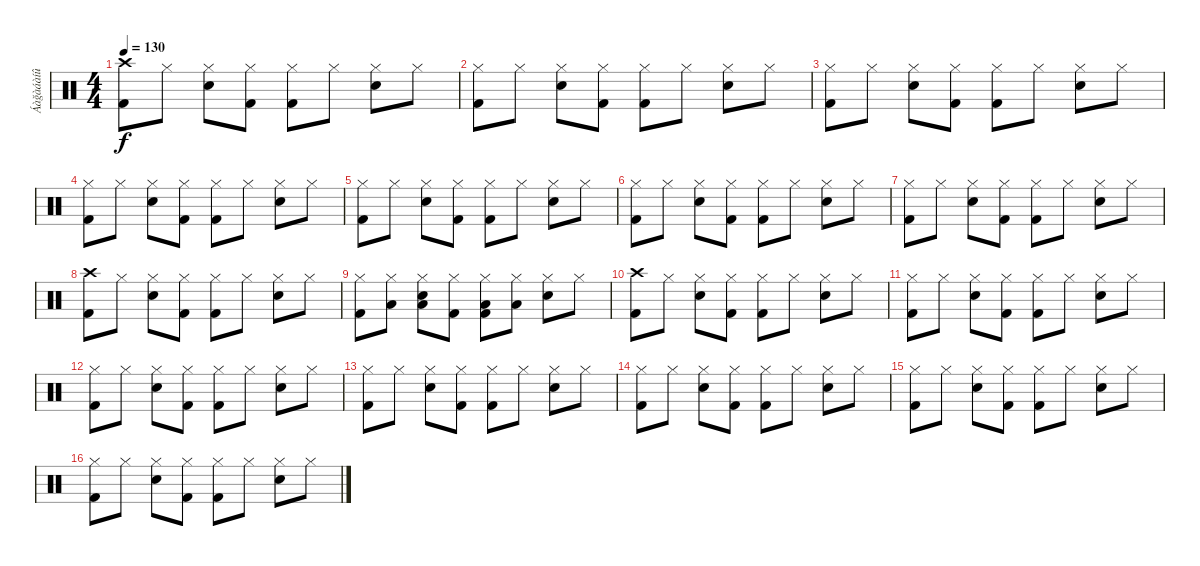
\track ("Áàğàáàíû" "Áàğàáàíû") {instrument percussion}
\staff {score}
\articulation defaults
\ts (4 4)
\tempo 130
\clef neutral
\ks c
("Crash high (hit)" "Kick (hit) 2").8{dy f} "Hi-Hat (closed)".8 ("Hi-Hat (closed)" "Snare (hit) 2").8 ("Hi-Hat (closed)" "Kick (hit) 2").8 ("Hi-Hat (closed)" "Kick (hit) 2").8 "Hi-Hat (closed)".8 ("Hi-Hat (closed)" "Snare (hit) 2").8 "Hi-Hat (closed)".8 |
("Hi-Hat (closed)" "Kick (hit) 2").8 "Hi-Hat (closed)".8 ("Hi-Hat (closed)" "Snare (hit) 2").8 ("Hi-Hat (closed)" "Kick (hit) 2").8 ("Hi-Hat (closed)" "Kick (hit) 2").8 "Hi-Hat (closed)".8 ("Hi-Hat (closed)" "Snare (hit) 2").8 "Hi-Hat (closed)".8 |
("Hi-Hat (closed)" "Kick (hit) 2").8 "Hi-Hat (closed)".8 ("Hi-Hat (closed)" "Snare (hit) 2").8 ("Hi-Hat (closed)" "Kick (hit) 2").8 ("Hi-Hat (closed)" "Kick (hit) 2").8 "Hi-Hat (closed)".8 ("Hi-Hat (closed)" "Snare (hit) 2").8 "Hi-Hat (closed)".8 |
("Hi-Hat (closed)" "Kick (hit) 2").8 "Hi-Hat (closed)".8 ("Hi-Hat (closed)" "Snare (hit) 2").8 ("Hi-Hat (closed)" "Kick (hit) 2").8 ("Hi-Hat (closed)" "Kick (hit) 2").8 "Hi-Hat (closed)".8 ("Hi-Hat (closed)" "Snare (hit) 2").8 "Hi-Hat (closed)".8 |
("Hi-Hat (closed)" "Kick (hit) 2").8 "Hi-Hat (closed)".8 ("Hi-Hat (closed)" "Snare (hit) 2").8 ("Hi-Hat (closed)" "Kick (hit) 2").8 ("Hi-Hat (closed)" "Kick (hit) 2").8 "Hi-Hat (closed)".8 ("Hi-Hat (closed)" "Snare (hit) 2").8 "Hi-Hat (closed)".8 |
("Hi-Hat (closed)" "Kick (hit) 2").8 "Hi-Hat (closed)".8 ("Hi-Hat (closed)" "Snare (hit) 2").8 ("Hi-Hat (closed)" "Kick (hit) 2").8 ("Hi-Hat (closed)" "Kick (hit) 2").8 "Hi-Hat (closed)".8 ("Hi-Hat (closed)" "Snare (hit) 2").8 "Hi-Hat (closed)".8 |
("Hi-Hat (closed)" "Kick (hit) 2").8 "Hi-Hat (closed)".8 ("Hi-Hat (closed)" "Snare (hit) 2").8 ("Hi-Hat (closed)" "Kick (hit) 2").8 ("Hi-Hat (closed)" "Kick (hit) 2").8 "Hi-Hat (closed)".8 ("Hi-Hat (closed)" "Snare (hit) 2").8 "Hi-Hat (closed)".8 |
("Crash high (hit)" "Kick (hit) 2").8 "Hi-Hat (closed)".8 ("Hi-Hat (closed)" "Snare (hit) 2").8 ("Hi-Hat (closed)" "Kick (hit) 2").8 ("Hi-Hat (closed)" "Kick (hit) 2").8 "Hi-Hat (closed)".8 ("Hi-Hat (closed)" "Snare (hit) 2").8 "Hi-Hat (closed)".8 |
("Hi-Hat (closed)" "Kick (hit) 2").8 ("Hi-Hat (closed)" "Low Tom (hit)").8 ("Hi-Hat (closed)" "Snare (hit) 2" "Low Tom (hit)").8 ("Hi-Hat (closed)" "Kick (hit) 2").8 ("Hi-Hat (closed)" "Kick (hit) 2" "Low Tom (hit)").8 ("Hi-Hat (closed)" "Low Tom (hit)").8 ("Hi-Hat (closed)" "Snare (hit) 2").8 "Hi-Hat (closed)".8 |
("Crash high (hit)" "Kick (hit) 2").8 "Hi-Hat (closed)".8 ("Hi-Hat (closed)" "Snare (hit) 2").8 ("Hi-Hat (closed)" "Kick (hit) 2").8 ("Hi-Hat (closed)" "Kick (hit) 2").8 "Hi-Hat (closed)".8 ("Hi-Hat (closed)" "Snare (hit) 2").8 "Hi-Hat (closed)".8 |
("Hi-Hat (closed)" "Kick (hit) 2").8 "Hi-Hat (closed)".8 ("Hi-Hat (closed)" "Snare (hit) 2").8 ("Hi-Hat (closed)" "Kick (hit) 2").8 ("Hi-Hat (closed)" "Kick (hit) 2").8 "Hi-Hat (closed)".8 ("Hi-Hat (closed)" "Snare (hit) 2").8 "Hi-Hat (closed)".8 |
("Hi-Hat (closed)" "Kick (hit) 2").8 "Hi-Hat (closed)".8 ("Hi-Hat (closed)" "Snare (hit) 2").8 ("Hi-Hat (closed)" "Kick (hit) 2").8 ("Hi-Hat (closed)" "Kick (hit) 2").8 "Hi-Hat (closed)".8 ("Hi-Hat (closed)" "Snare (hit) 2").8 "Hi-Hat (closed)".8 |
("Hi-Hat (closed)" "Kick (hit) 2").8 "Hi-Hat (closed)".8 ("Hi-Hat (closed)" "Snare (hit) 2").8 ("Hi-Hat (closed)" "Kick (hit) 2").8 ("Hi-Hat (closed)" "Kick (hit) 2").8 "Hi-Hat (closed)".8 ("Hi-Hat (closed)" "Snare (hit) 2").8 "Hi-Hat (closed)".8 |
("Hi-Hat (closed)" "Kick (hit) 2").8 "Hi-Hat (closed)".8 ("Hi-Hat (closed)" "Snare (hit) 2").8 ("Hi-Hat (closed)" "Kick (hit) 2").8 ("Hi-Hat (closed)" "Kick (hit) 2").8 "Hi-Hat (closed)".8 ("Hi-Hat (closed)" "Snare (hit) 2").8 "Hi-Hat (closed)".8 |
("Hi-Hat (closed)" "Kick (hit) 2").8 "Hi-Hat (closed)".8 ("Hi-Hat (closed)" "Snare (hit) 2").8 ("Hi-Hat (closed)" "Kick (hit) 2").8 ("Hi-Hat (closed)" "Kick (hit) 2").8 "Hi-Hat (closed)".8 ("Hi-Hat (closed)" "Snare (hit) 2").8 "Hi-Hat (closed)".8 |
("Hi-Hat (closed)" "Kick (hit) 2").8 "Hi-Hat (closed)".8 ("Hi-Hat (closed)" "Snare (hit) 2").8 ("Hi-Hat (closed)" "Kick (hit) 2").8 ("Hi-Hat (closed)" "Kick (hit) 2").8 "Hi-Hat (closed)".8 ("Hi-Hat (closed)" "Snare (hit) 2").8 "Hi-Hat (closed)".8
